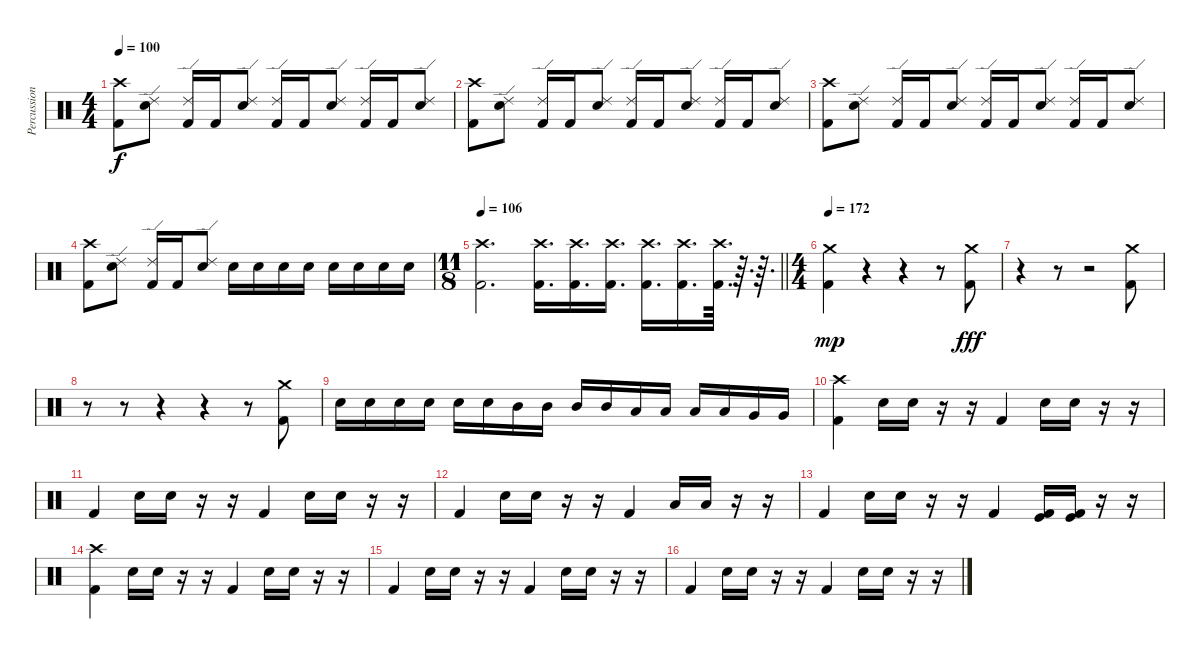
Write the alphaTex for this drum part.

\track ("Percussion" "Percussion") {instrument percussion}
\staff {score}
\articulation defaults
\ts (4 4)
\tempo 100
\clef neutral
\ks c
("Crash high (hit)" "Kick (hit) 2").8{dy f} ("Ride (edge) 2" "Electric Snare (hit)").8 ("Ride (edge) 2" "Kick (hit) 2").16 "Kick (hit) 2".16 ("Ride (edge) 2" "Electric Snare (hit)").8 ("Ride (edge) 2" "Kick (hit) 2").16 "Kick (hit) 2".16 ("Ride (edge) 2" "Electric Snare (hit)").8 ("Ride (edge) 2" "Kick (hit) 2").16 "Kick (hit) 2".16 ("Ride (edge) 2" "Electric Snare (hit)").8 |
("Crash high (hit)" "Kick (hit) 2").8 ("Ride (edge) 2" "Electric Snare (hit)").8 ("Ride (edge) 2" "Kick (hit) 2").16 "Kick (hit) 2".16 ("Ride (edge) 2" "Electric Snare (hit)").8 ("Ride (edge) 2" "Kick (hit) 2").16 "Kick (hit) 2".16 ("Ride (edge) 2" "Electric Snare (hit)").8 ("Ride (edge) 2" "Kick (hit) 2").16 "Kick (hit) 2".16 ("Ride (edge) 2" "Electric Snare (hit)").8 |
("Crash high (hit)" "Kick (hit) 2").8 ("Ride (edge) 2" "Electric Snare (hit)").8 ("Ride (edge) 2" "Kick (hit) 2").16 "Kick (hit) 2".16 ("Ride (edge) 2" "Electric Snare (hit)").8 ("Ride (edge) 2" "Kick (hit) 2").16 "Kick (hit) 2".16 ("Ride (edge) 2" "Electric Snare (hit)").8 ("Ride (edge) 2" "Kick (hit) 2").16 "Kick (hit) 2".16 ("Ride (edge) 2" "Electric Snare (hit)").8 |
("Crash high (hit)" "Kick (hit) 2").8 ("Ride (edge) 2" "Electric Snare (hit)").8 ("Ride (edge) 2" "Kick (hit) 2").16 "Kick (hit) 2".16 ("Ride (edge) 2" "Electric Snare (hit)").8 "Electric Snare (hit)".16 "Electric Snare (hit)".16 "Electric Snare (hit)".16 "Electric Snare (hit)".16 "Electric Snare (hit)".16 "Electric Snare (hit)".16 "Electric Snare (hit)".16 "Electric Snare (hit)".16 |
\ts (11 8)
\tempo 106
\barLineRight lightlight
("Crash high (hit)" "Kick (hit) 2").2{d} ("Crash high (hit)" "Kick (hit) 2").16{d} ("Crash high (hit)" "Kick (hit) 2").16{d} ("Crash high (hit)" "Kick (hit) 2").16{d} ("Crash high (hit)" "Kick (hit) 2").16{d} ("Crash high (hit)" "Kick (hit) 2").16{d} ("Crash high (hit)" "Kick (hit) 2").64{d} r.64{d} r.64{d} |
\ts (4 4)
\tempo 172
("Crash medium (hit)" "Kick (hit) 2").4{dy mp} r.4 r.4 r.8 ("Crash medium (hit)" "Kick (hit) 2").8{dy fff} |
r.4 r.8 r.2 ("Crash medium (hit)" "Kick (hit) 2").8 |
r.8 r.8 r.4 r.4 r.8 ("Crash medium (hit)" "Kick (hit) 2").8 |
"Electric Snare (hit)".16 "Electric Snare (hit)".16 "Electric Snare (hit)".16 "Electric Snare (hit)".16 "Electric Snare (hit)".16 "Electric Snare (hit)".16 "Mid Tom (hit)".16 "Mid Tom (hit)".16 "Mid Tom (hit)".16 "Mid Tom (hit)".16 "Low Tom (hit)".16 "Low Tom (hit)".16 "Low Tom (hit)".16 "Low Tom (hit)".16 "Very Low Tom (hit)".16 "Very Low Tom (hit)".16 |
("Crash high (hit)" "Kick (hit) 2").4 "Electric Snare (hit)".16 "Electric Snare (hit)".16 r.16 r.16 "Kick (hit) 2".4 "Electric Snare (hit)".16 "Electric Snare (hit)".16 r.16 r.16 |
"Kick (hit) 2".4 "Electric Snare (hit)".16 "Electric Snare (hit)".16 r.16 r.16 "Kick (hit) 2".4 "Electric Snare (hit)".16 "Electric Snare (hit)".16 r.16 r.16 |
"Kick (hit) 2".4 "Electric Snare (hit)".16 "Electric Snare (hit)".16 r.16 r.16 "Kick (hit) 2".4 "Low Tom (hit)".16 "Low Tom (hit)".16 r.16 r.16 |
"Kick (hit) 2".4 "Electric Snare (hit)".16 "Electric Snare (hit)".16 r.16 r.16 "Kick (hit) 2".4 ("Kick (hit)" "Kick (hit) 2").16 ("Kick (hit)" "Kick (hit) 2").16 r.16 r.16 |
("Crash high (hit)" "Kick (hit) 2").4 "Electric Snare (hit)".16 "Electric Snare (hit)".16 r.16 r.16 "Kick (hit) 2".4 "Electric Snare (hit)".16 "Electric Snare (hit)".16 r.16 r.16 |
"Kick (hit) 2".4 "Electric Snare (hit)".16 "Electric Snare (hit)".16 r.16 r.16 "Kick (hit) 2".4 "Electric Snare (hit)".16 "Electric Snare (hit)".16 r.16 r.16 |
"Kick (hit) 2".4 "Electric Snare (hit)".16 "Electric Snare (hit)".16 r.16 r.16 "Kick (hit) 2".4 "Electric Snare (hit)".16 "Electric Snare (hit)".16 r.16 r.16
